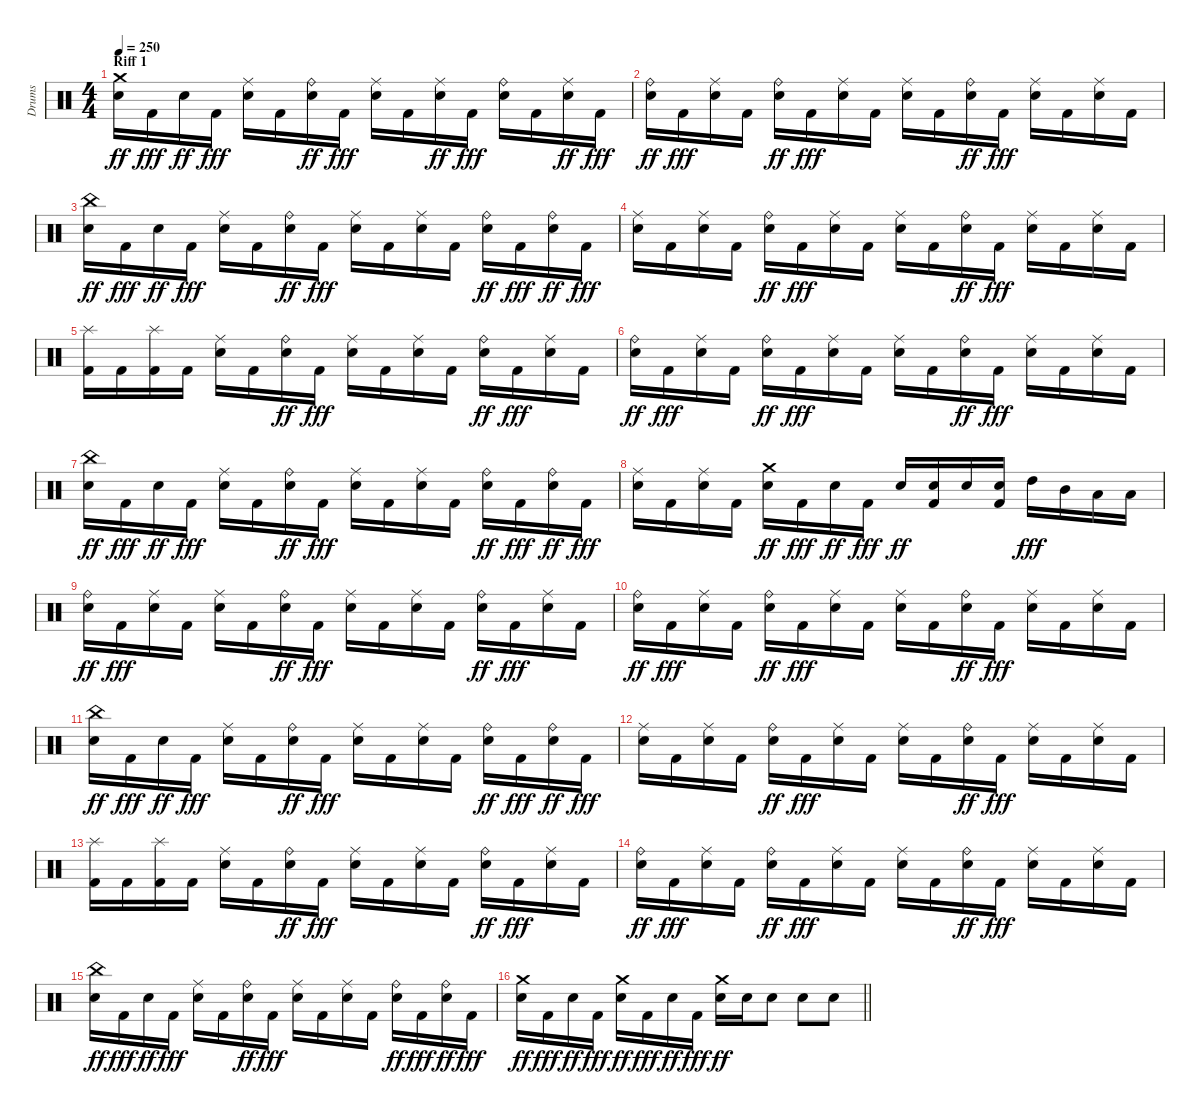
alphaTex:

\track ("Drums" "Drums") {instrument percussion}
\staff {score}
\articulation defaults
\ts (4 4)
\section ("" "Riff 1")
\tempo 250
\clef neutral
\ks c
("Snare (hit) 2" "Crash medium (hit)").16{dy ff} "Kick (hit) 2".16{dy fff} "Snare (hit) 2".16{dy ff} "Kick (hit) 2".16{dy fff} ("Snare (hit) 2" "Ride (middle)").16 "Kick (hit) 2".16 ("Snare (hit) 2" "Ride (bell)").16{dy ff} "Kick (hit) 2".16{dy fff} ("Snare (hit) 2" "Ride (middle)").16 "Kick (hit) 2".16 ("Snare (hit) 2" "Ride (middle)").16{dy ff} "Kick (hit) 2".16{dy fff} ("Snare (hit) 2" "Ride (bell)").16 "Kick (hit) 2".16 ("Snare (hit) 2" "Ride (middle)").16{dy ff} "Kick (hit) 2".16{dy fff} |
("Snare (hit) 2" "Ride (bell)").16{dy ff} "Kick (hit) 2".16{dy fff} ("Snare (hit) 2" "Ride (middle)").16 "Kick (hit) 2".16 ("Snare (hit) 2" "Ride (bell)").16{dy ff} "Kick (hit) 2".16{dy fff} ("Snare (hit) 2" "Ride (middle)").16 "Kick (hit) 2".16 ("Snare (hit) 2" "Ride (middle)").16 "Kick (hit) 2".16 ("Snare (hit) 2" "Ride (bell)").16{dy ff} "Kick (hit) 2".16{dy fff} ("Snare (hit) 2" "Ride (middle)").16 "Kick (hit) 2".16 ("Snare (hit) 2" "Ride (middle)").16 "Kick (hit) 2".16 |
("Snare (hit) 2" "China (hit)").16{dy ff} "Kick (hit) 2".16{dy fff} "Snare (hit) 2".16{dy ff} "Kick (hit) 2".16{dy fff} ("Snare (hit) 2" "Ride (middle)").16 "Kick (hit) 2".16 ("Snare (hit) 2" "Ride (bell)").16{dy ff} "Kick (hit) 2".16{dy fff} ("Snare (hit) 2" "Ride (middle)").16 "Kick (hit) 2".16 ("Snare (hit) 2" "Ride (middle)").16 "Kick (hit) 2".16 ("Snare (hit) 2" "Ride (bell)").16{dy ff} "Kick (hit) 2".16{dy fff} ("Snare (hit) 2" "Ride (bell)").16{dy ff} "Kick (hit) 2".16{dy fff} |
("Snare (hit) 2" "Ride (middle)").16 "Kick (hit) 2".16 ("Snare (hit) 2" "Ride (middle)").16 "Kick (hit) 2".16 ("Snare (hit) 2" "Ride (bell)").16{dy ff} "Kick (hit) 2".16{dy fff} ("Snare (hit) 2" "Ride (middle)").16 "Kick (hit) 2".16 ("Snare (hit) 2" "Ride (middle)").16 "Kick (hit) 2".16 ("Snare (hit) 2" "Ride (bell)").16{dy ff} "Kick (hit) 2".16{dy fff} ("Snare (hit) 2" "Ride (middle)").16 "Kick (hit) 2".16 ("Snare (hit) 2" "Ride (middle)").16 "Kick (hit) 2".16 |
("Kick (hit) 2" "Splash (hit)").16 "Kick (hit) 2".16 ("Kick (hit) 2" "Splash (hit)").16 "Kick (hit) 2".16 ("Snare (hit) 2" "Ride (middle)").16 "Kick (hit) 2".16 ("Snare (hit) 2" "Ride (bell)").16{dy ff} "Kick (hit) 2".16{dy fff} ("Snare (hit) 2" "Ride (middle)").16 "Kick (hit) 2".16 ("Snare (hit) 2" "Ride (middle)").16 "Kick (hit) 2".16 ("Snare (hit) 2" "Ride (bell)").16{dy ff} "Kick (hit) 2".16{dy fff} ("Snare (hit) 2" "Ride (middle)").16 "Kick (hit) 2".16 |
("Snare (hit) 2" "Ride (bell)").16{dy ff} "Kick (hit) 2".16{dy fff} ("Snare (hit) 2" "Ride (middle)").16 "Kick (hit) 2".16 ("Snare (hit) 2" "Ride (bell)").16{dy ff} "Kick (hit) 2".16{dy fff} ("Snare (hit) 2" "Ride (middle)").16 "Kick (hit) 2".16 ("Snare (hit) 2" "Ride (middle)").16 "Kick (hit) 2".16 ("Snare (hit) 2" "Ride (bell)").16{dy ff} "Kick (hit) 2".16{dy fff} ("Snare (hit) 2" "Ride (middle)").16 "Kick (hit) 2".16 ("Snare (hit) 2" "Ride (middle)").16 "Kick (hit) 2".16 |
("Snare (hit) 2" "China (hit)").16{dy ff} "Kick (hit) 2".16{dy fff} "Snare (hit) 2".16{dy ff} "Kick (hit) 2".16{dy fff} ("Snare (hit) 2" "Ride (middle)").16 "Kick (hit) 2".16 ("Snare (hit) 2" "Ride (bell)").16{dy ff} "Kick (hit) 2".16{dy fff} ("Snare (hit) 2" "Ride (middle)").16 "Kick (hit) 2".16 ("Snare (hit) 2" "Ride (middle)").16 "Kick (hit) 2".16 ("Snare (hit) 2" "Ride (bell)").16{dy ff} "Kick (hit) 2".16{dy fff} ("Snare (hit) 2" "Ride (bell)").16{dy ff} "Kick (hit) 2".16{dy fff} |
("Snare (hit) 2" "Ride (middle)").16 "Kick (hit) 2".16 ("Snare (hit) 2" "Ride (middle)").16 "Kick (hit) 2".16 ("Snare (hit) 2" "Crash medium (hit)").16{dy ff} "Kick (hit) 2".16{dy fff} "Snare (hit) 2".16{dy ff} "Kick (hit) 2".16{dy fff} "Snare (hit) 2".16{dy ff} ("Kick (hit) 2" "Snare (hit) 2").16 "Snare (hit) 2".16 ("Kick (hit) 2" "Snare (hit) 2").16 "High Tom (hit)".16{dy fff} "Mid Tom (hit)".16 "Low Tom (hit)".16 "Low Tom (hit)".16 |
("Snare (hit) 2" "Ride (bell)").16{dy ff} "Kick (hit) 2".16{dy fff} ("Snare (hit) 2" "Ride (middle)").16 "Kick (hit) 2".16 ("Snare (hit) 2" "Ride (middle)").16 "Kick (hit) 2".16 ("Snare (hit) 2" "Ride (bell)").16{dy ff} "Kick (hit) 2".16{dy fff} ("Snare (hit) 2" "Ride (middle)").16 "Kick (hit) 2".16 ("Snare (hit) 2" "Ride (middle)").16 "Kick (hit) 2".16 ("Snare (hit) 2" "Ride (bell)").16{dy ff} "Kick (hit) 2".16{dy fff} ("Snare (hit) 2" "Ride (middle)").16 "Kick (hit) 2".16 |
("Snare (hit) 2" "Ride (bell)").16{dy ff} "Kick (hit) 2".16{dy fff} ("Snare (hit) 2" "Ride (middle)").16 "Kick (hit) 2".16 ("Snare (hit) 2" "Ride (bell)").16{dy ff} "Kick (hit) 2".16{dy fff} ("Snare (hit) 2" "Ride (middle)").16 "Kick (hit) 2".16 ("Snare (hit) 2" "Ride (middle)").16 "Kick (hit) 2".16 ("Snare (hit) 2" "Ride (bell)").16{dy ff} "Kick (hit) 2".16{dy fff} ("Snare (hit) 2" "Ride (middle)").16 "Kick (hit) 2".16 ("Snare (hit) 2" "Ride (middle)").16 "Kick (hit) 2".16 |
("Snare (hit) 2" "China (hit)").16{dy ff} "Kick (hit) 2".16{dy fff} "Snare (hit) 2".16{dy ff} "Kick (hit) 2".16{dy fff} ("Snare (hit) 2" "Ride (middle)").16 "Kick (hit) 2".16 ("Snare (hit) 2" "Ride (bell)").16{dy ff} "Kick (hit) 2".16{dy fff} ("Snare (hit) 2" "Ride (middle)").16 "Kick (hit) 2".16 ("Snare (hit) 2" "Ride (middle)").16 "Kick (hit) 2".16 ("Snare (hit) 2" "Ride (bell)").16{dy ff} "Kick (hit) 2".16{dy fff} ("Snare (hit) 2" "Ride (bell)").16{dy ff} "Kick (hit) 2".16{dy fff} |
("Snare (hit) 2" "Ride (middle)").16 "Kick (hit) 2".16 ("Snare (hit) 2" "Ride (middle)").16 "Kick (hit) 2".16 ("Snare (hit) 2" "Ride (bell)").16{dy ff} "Kick (hit) 2".16{dy fff} ("Snare (hit) 2" "Ride (middle)").16 "Kick (hit) 2".16 ("Snare (hit) 2" "Ride (middle)").16 "Kick (hit) 2".16 ("Snare (hit) 2" "Ride (bell)").16{dy ff} "Kick (hit) 2".16{dy fff} ("Snare (hit) 2" "Ride (middle)").16 "Kick (hit) 2".16 ("Snare (hit) 2" "Ride (middle)").16 "Kick (hit) 2".16 |
("Kick (hit) 2" "Splash (hit)").16 "Kick (hit) 2".16 ("Kick (hit) 2" "Splash (hit)").16 "Kick (hit) 2".16 ("Snare (hit) 2" "Ride (middle)").16 "Kick (hit) 2".16 ("Snare (hit) 2" "Ride (bell)").16{dy ff} "Kick (hit) 2".16{dy fff} ("Snare (hit) 2" "Ride (middle)").16 "Kick (hit) 2".16 ("Snare (hit) 2" "Ride (middle)").16 "Kick (hit) 2".16 ("Snare (hit) 2" "Ride (bell)").16{dy ff} "Kick (hit) 2".16{dy fff} ("Snare (hit) 2" "Ride (middle)").16 "Kick (hit) 2".16 |
("Snare (hit) 2" "Ride (bell)").16{dy ff} "Kick (hit) 2".16{dy fff} ("Snare (hit) 2" "Ride (middle)").16 "Kick (hit) 2".16 ("Snare (hit) 2" "Ride (bell)").16{dy ff} "Kick (hit) 2".16{dy fff} ("Snare (hit) 2" "Ride (middle)").16 "Kick (hit) 2".16 ("Snare (hit) 2" "Ride (middle)").16 "Kick (hit) 2".16 ("Snare (hit) 2" "Ride (bell)").16{dy ff} "Kick (hit) 2".16{dy fff} ("Snare (hit) 2" "Ride (middle)").16 "Kick (hit) 2".16 ("Snare (hit) 2" "Ride (middle)").16 "Kick (hit) 2".16 |
("Snare (hit) 2" "China (hit)").16{dy ff} "Kick (hit) 2".16{dy fff} "Snare (hit) 2".16{dy ff} "Kick (hit) 2".16{dy fff} ("Snare (hit) 2" "Ride (middle)").16 "Kick (hit) 2".16 ("Snare (hit) 2" "Ride (bell)").16{dy ff} "Kick (hit) 2".16{dy fff} ("Snare (hit) 2" "Ride (middle)").16 "Kick (hit) 2".16 ("Snare (hit) 2" "Ride (middle)").16 "Kick (hit) 2".16 ("Snare (hit) 2" "Ride (bell)").16{dy ff} "Kick (hit) 2".16{dy fff} ("Snare (hit) 2" "Ride (bell)").16{dy ff} "Kick (hit) 2".16{dy fff} |
\barLineRight lightlight
("Snare (hit) 2" "Crash medium (hit)").16{dy ff} "Kick (hit) 2".16{dy fff} "Snare (hit) 2".16{dy ff} "Kick (hit) 2".16{dy fff} ("Snare (hit) 2" "Crash medium (hit)").16{dy ff} "Kick (hit) 2".16{dy fff} "Snare (hit) 2".16{dy ff} "Kick (hit) 2".16{dy fff} ("Snare (hit) 2" "Crash medium (hit)").16{dy ff} "Snare (hit) 2".16 "Snare (hit) 2".8 "Snare (hit) 2".8 "Snare (hit) 2".8
